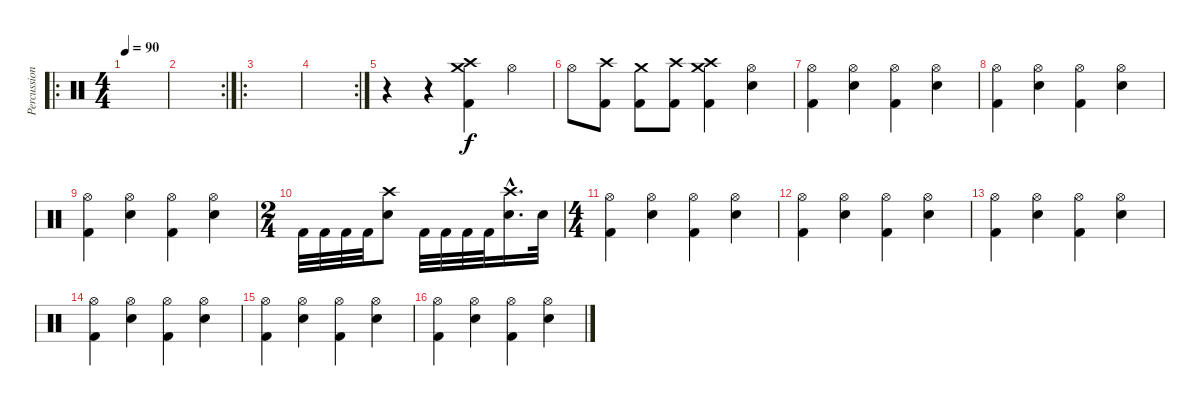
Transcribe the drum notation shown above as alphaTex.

\track ("Percussions" "Percussion") {instrument percussion}
\staff {score}
\articulation defaults
\ro
\ts (4 4)
\tempo 90
\clef neutral
\ks c
|
\rc 2
|
\ro
|
\rc 2
|
r.4 r.4 ("Crash medium (hit)" "Crash high (hit)" "Kick (hit) 2").4 "Hi-Hat (open)".4 |
"Hi-Hat (open)".8 ("Crash high (hit)" "Kick (hit) 2").8 ("Crash medium (hit)" "Kick (hit) 2").8 ("Crash high (hit)" "Kick (hit) 2").8 ("Crash high (hit)" "Crash medium (hit)" "Kick (hit) 2").4 ("Hi-Hat (open)" "Snare (hit) 2").4 |
("Hi-Hat (open)" "Kick (hit) 2").4 ("Hi-Hat (open)" "Snare (hit) 2").4 ("Hi-Hat (open)" "Kick (hit) 2").4 ("Hi-Hat (open)" "Snare (hit) 2").4 |
("Hi-Hat (open)" "Kick (hit) 2").4 ("Hi-Hat (open)" "Snare (hit) 2").4 ("Hi-Hat (open)" "Kick (hit) 2").4 ("Hi-Hat (open)" "Snare (hit) 2").4 |
("Hi-Hat (open)" "Kick (hit) 2").4 ("Hi-Hat (open)" "Snare (hit) 2").4 ("Hi-Hat (open)" "Kick (hit) 2").4 ("Hi-Hat (open)" "Snare (hit) 2").4 |
\ts (2 4)
"Kick (hit) 2".32 "Kick (hit) 2".32 "Kick (hit) 2".32 "Kick (hit) 2".32 ("Crash high (hit)" "Snare (hit) 2").8 "Kick (hit) 2".32 "Kick (hit) 2".32 "Kick (hit) 2".32 "Kick (hit) 2".32 ("Crash high (hit)"{hac} "Snare (hit) 2"{hac}).16{d} "Snare (hit) 2".32 |
\ts (4 4)
("Hi-Hat (open)" "Kick (hit) 2").4 ("Hi-Hat (open)" "Snare (hit) 2").4 ("Hi-Hat (open)" "Kick (hit) 2").4 ("Hi-Hat (open)" "Snare (hit) 2").4 |
("Hi-Hat (open)" "Kick (hit) 2").4 ("Hi-Hat (open)" "Snare (hit) 2").4 ("Hi-Hat (open)" "Kick (hit) 2").4 ("Hi-Hat (open)" "Snare (hit) 2").4 |
("Hi-Hat (open)" "Kick (hit) 2").4 ("Hi-Hat (open)" "Snare (hit) 2").4 ("Hi-Hat (open)" "Kick (hit) 2").4 ("Hi-Hat (open)" "Snare (hit) 2").4 |
("Hi-Hat (open)" "Kick (hit) 2").4 ("Hi-Hat (open)" "Snare (hit) 2").4 ("Hi-Hat (open)" "Kick (hit) 2").4 ("Hi-Hat (open)" "Snare (hit) 2").4 |
("Hi-Hat (open)" "Kick (hit) 2").4 ("Hi-Hat (open)" "Snare (hit) 2").4 ("Hi-Hat (open)" "Kick (hit) 2").4 ("Hi-Hat (open)" "Snare (hit) 2").4 |
("Hi-Hat (open)" "Kick (hit) 2").4 ("Hi-Hat (open)" "Snare (hit) 2").4 ("Hi-Hat (open)" "Kick (hit) 2").4 ("Hi-Hat (open)" "Snare (hit) 2").4
